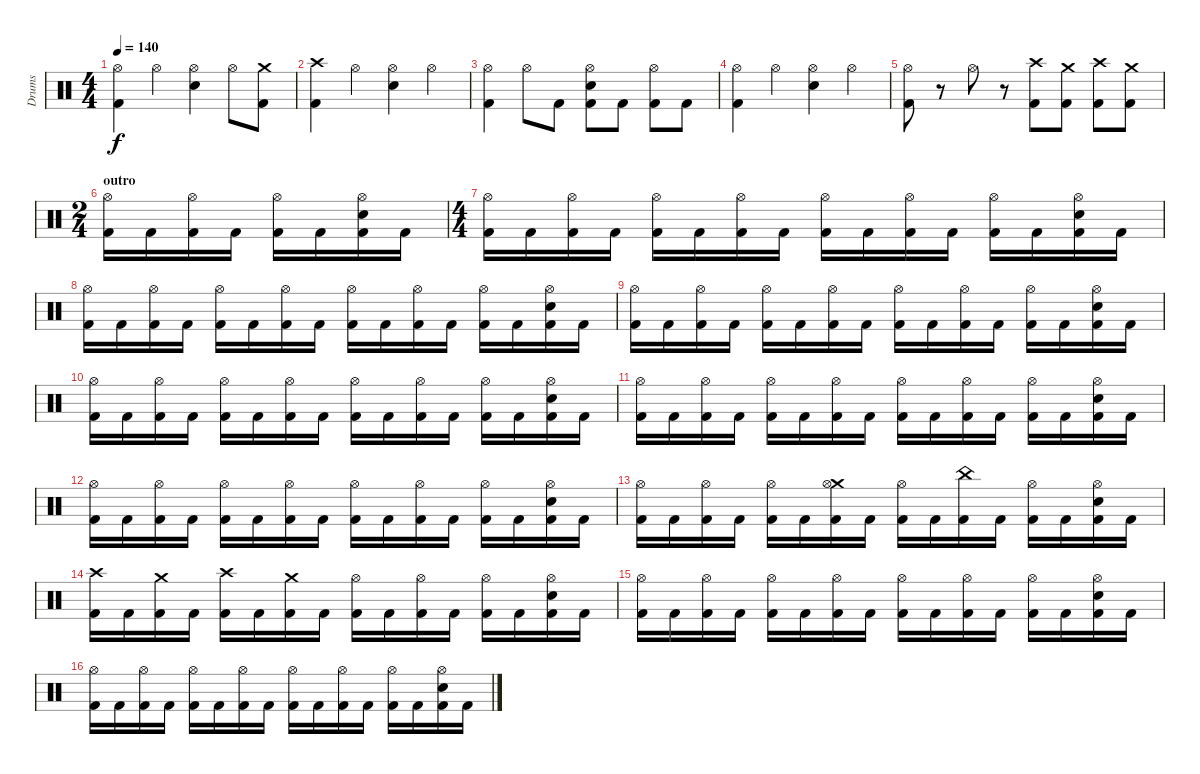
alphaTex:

\track ("Drums" "Drums") {instrument percussion}
\staff {score}
\articulation defaults
\ts (4 4)
\tempo 140
\clef neutral
\ks c
("Hi-Hat (open)" "Kick (hit) 2").4{dy f} "Hi-Hat (open)".4 ("Hi-Hat (open)" "Snare (hit) 2").4 "Hi-Hat (open)".8 ("Crash medium (hit)" "Kick (hit) 2").8 |
("Crash high (hit)" "Kick (hit) 2").4 "Hi-Hat (open)".4 ("Hi-Hat (open)" "Snare (hit) 2").4 "Hi-Hat (open)".4 |
("Hi-Hat (open)" "Kick (hit) 2").4 "Hi-Hat (open)".8 "Kick (hit) 2".8 ("Hi-Hat (open)" "Snare (hit) 2" "Kick (hit) 2").8 "Kick (hit) 2".8 ("Hi-Hat (open)" "Kick (hit) 2").8 "Kick (hit) 2".8 |
("Hi-Hat (open)" "Kick (hit) 2").4 "Hi-Hat (open)".4 ("Hi-Hat (open)" "Snare (hit) 2").4 "Hi-Hat (open)".4 |
("Hi-Hat (open)" "Kick (hit) 2").8 r.8 "Hi-Hat (open)".8 r.8 ("Crash high (hit)" "Kick (hit) 2").8 ("Crash medium (hit)" "Kick (hit) 2").8 ("Crash high (hit)" "Kick (hit) 2").8 ("Crash medium (hit)" "Kick (hit) 2").8 |
\ts (2 4)
\section ("" "outro")
("Hi-Hat (open)" "Kick (hit) 2").16 "Kick (hit) 2".16 ("Hi-Hat (open)" "Kick (hit) 2").16 "Kick (hit) 2".16 ("Hi-Hat (open)" "Kick (hit) 2").16 "Kick (hit) 2".16 ("Hi-Hat (open)" "Snare (hit) 2" "Kick (hit) 2").16 "Kick (hit) 2".16 |
\ts (4 4)
("Hi-Hat (open)" "Kick (hit) 2").16 "Kick (hit) 2".16 ("Hi-Hat (open)" "Kick (hit) 2").16 "Kick (hit) 2".16 ("Hi-Hat (open)" "Kick (hit) 2").16 "Kick (hit) 2".16 ("Hi-Hat (open)" "Kick (hit) 2").16 "Kick (hit) 2".16 ("Hi-Hat (open)" "Kick (hit) 2").16 "Kick (hit) 2".16 ("Hi-Hat (open)" "Kick (hit) 2").16 "Kick (hit) 2".16 ("Hi-Hat (open)" "Kick (hit) 2").16 "Kick (hit) 2".16 ("Hi-Hat (open)" "Snare (hit) 2" "Kick (hit) 2").16 "Kick (hit) 2".16 |
("Hi-Hat (open)" "Kick (hit) 2").16 "Kick (hit) 2".16 ("Hi-Hat (open)" "Kick (hit) 2").16 "Kick (hit) 2".16 ("Hi-Hat (open)" "Kick (hit) 2").16 "Kick (hit) 2".16 ("Hi-Hat (open)" "Kick (hit) 2").16 "Kick (hit) 2".16 ("Hi-Hat (open)" "Kick (hit) 2").16 "Kick (hit) 2".16 ("Hi-Hat (open)" "Kick (hit) 2").16 "Kick (hit) 2".16 ("Hi-Hat (open)" "Kick (hit) 2").16 "Kick (hit) 2".16 ("Hi-Hat (open)" "Snare (hit) 2" "Kick (hit) 2").16 "Kick (hit) 2".16 |
("Hi-Hat (open)" "Kick (hit) 2").16 "Kick (hit) 2".16 ("Hi-Hat (open)" "Kick (hit) 2").16 "Kick (hit) 2".16 ("Hi-Hat (open)" "Kick (hit) 2").16 "Kick (hit) 2".16 ("Hi-Hat (open)" "Kick (hit) 2").16 "Kick (hit) 2".16 ("Hi-Hat (open)" "Kick (hit) 2").16 "Kick (hit) 2".16 ("Hi-Hat (open)" "Kick (hit) 2").16 "Kick (hit) 2".16 ("Hi-Hat (open)" "Kick (hit) 2").16 "Kick (hit) 2".16 ("Hi-Hat (open)" "Snare (hit) 2" "Kick (hit) 2").16 "Kick (hit) 2".16 |
("Hi-Hat (open)" "Kick (hit) 2").16 "Kick (hit) 2".16 ("Hi-Hat (open)" "Kick (hit) 2").16 "Kick (hit) 2".16 ("Hi-Hat (open)" "Kick (hit) 2").16 "Kick (hit) 2".16 ("Hi-Hat (open)" "Kick (hit) 2").16 "Kick (hit) 2".16 ("Hi-Hat (open)" "Kick (hit) 2").16 "Kick (hit) 2".16 ("Hi-Hat (open)" "Kick (hit) 2").16 "Kick (hit) 2".16 ("Hi-Hat (open)" "Kick (hit) 2").16 "Kick (hit) 2".16 ("Hi-Hat (open)" "Snare (hit) 2" "Kick (hit) 2").16 "Kick (hit) 2".16 |
("Hi-Hat (open)" "Kick (hit) 2").16 "Kick (hit) 2".16 ("Hi-Hat (open)" "Kick (hit) 2").16 "Kick (hit) 2".16 ("Hi-Hat (open)" "Kick (hit) 2").16 "Kick (hit) 2".16 ("Hi-Hat (open)" "Kick (hit) 2").16 "Kick (hit) 2".16 ("Hi-Hat (open)" "Kick (hit) 2").16 "Kick (hit) 2".16 ("Hi-Hat (open)" "Kick (hit) 2").16 "Kick (hit) 2".16 ("Hi-Hat (open)" "Kick (hit) 2").16 "Kick (hit) 2".16 ("Hi-Hat (open)" "Snare (hit) 2" "Kick (hit) 2").16 "Kick (hit) 2".16 |
("Hi-Hat (open)" "Kick (hit) 2").16 "Kick (hit) 2".16 ("Hi-Hat (open)" "Kick (hit) 2").16 "Kick (hit) 2".16 ("Hi-Hat (open)" "Kick (hit) 2").16 "Kick (hit) 2".16 ("Hi-Hat (open)" "Kick (hit) 2").16 "Kick (hit) 2".16 ("Hi-Hat (open)" "Kick (hit) 2").16 "Kick (hit) 2".16 ("Hi-Hat (open)" "Kick (hit) 2").16 "Kick (hit) 2".16 ("Hi-Hat (open)" "Kick (hit) 2").16 "Kick (hit) 2".16 ("Hi-Hat (open)" "Snare (hit) 2" "Kick (hit) 2").16 "Kick (hit) 2".16 |
("Hi-Hat (open)" "Kick (hit) 2").16 "Kick (hit) 2".16 ("Hi-Hat (open)" "Kick (hit) 2").16 "Kick (hit) 2".16 ("Hi-Hat (open)" "Kick (hit) 2").16 "Kick (hit) 2".16 ("Crash medium (hit)" "Hi-Hat (open)" "Kick (hit) 2").16 "Kick (hit) 2".16 ("Hi-Hat (open)" "Kick (hit) 2").16 "Kick (hit) 2".16 ("China (hit)" "Kick (hit) 2").16 "Kick (hit) 2".16 ("Hi-Hat (open)" "Kick (hit) 2").16 "Kick (hit) 2".16 ("Hi-Hat (open)" "Snare (hit) 2" "Kick (hit) 2").16 "Kick (hit) 2".16 |
("Crash high (hit)" "Kick (hit) 2").16 "Kick (hit) 2".16 ("Crash medium (hit)" "Kick (hit) 2").16 "Kick (hit) 2".16 ("Crash high (hit)" "Kick (hit) 2").16 "Kick (hit) 2".16 ("Crash medium (hit)" "Kick (hit) 2").16 "Kick (hit) 2".16 ("Hi-Hat (open)" "Kick (hit) 2").16 "Kick (hit) 2".16 ("Hi-Hat (open)" "Kick (hit) 2").16 "Kick (hit) 2".16 ("Hi-Hat (open)" "Kick (hit) 2").16 "Kick (hit) 2".16 ("Hi-Hat (open)" "Snare (hit) 2" "Kick (hit) 2").16 "Kick (hit) 2".16 |
("Hi-Hat (open)" "Kick (hit) 2").16 "Kick (hit) 2".16 ("Hi-Hat (open)" "Kick (hit) 2").16 "Kick (hit) 2".16 ("Hi-Hat (open)" "Kick (hit) 2").16 "Kick (hit) 2".16 ("Hi-Hat (open)" "Kick (hit) 2").16 "Kick (hit) 2".16 ("Hi-Hat (open)" "Kick (hit) 2").16 "Kick (hit) 2".16 ("Hi-Hat (open)" "Kick (hit) 2").16 "Kick (hit) 2".16 ("Hi-Hat (open)" "Kick (hit) 2").16 "Kick (hit) 2".16 ("Hi-Hat (open)" "Snare (hit) 2" "Kick (hit) 2").16 "Kick (hit) 2".16 |
("Hi-Hat (open)" "Kick (hit) 2").16 "Kick (hit) 2".16 ("Hi-Hat (open)" "Kick (hit) 2").16 "Kick (hit) 2".16 ("Hi-Hat (open)" "Kick (hit) 2").16 "Kick (hit) 2".16 ("Hi-Hat (open)" "Kick (hit) 2").16 "Kick (hit) 2".16 ("Hi-Hat (open)" "Kick (hit) 2").16 "Kick (hit) 2".16 ("Hi-Hat (open)" "Kick (hit) 2").16 "Kick (hit) 2".16 ("Hi-Hat (open)" "Kick (hit) 2").16 "Kick (hit) 2".16 ("Hi-Hat (open)" "Snare (hit) 2" "Kick (hit) 2").16 "Kick (hit) 2".16
